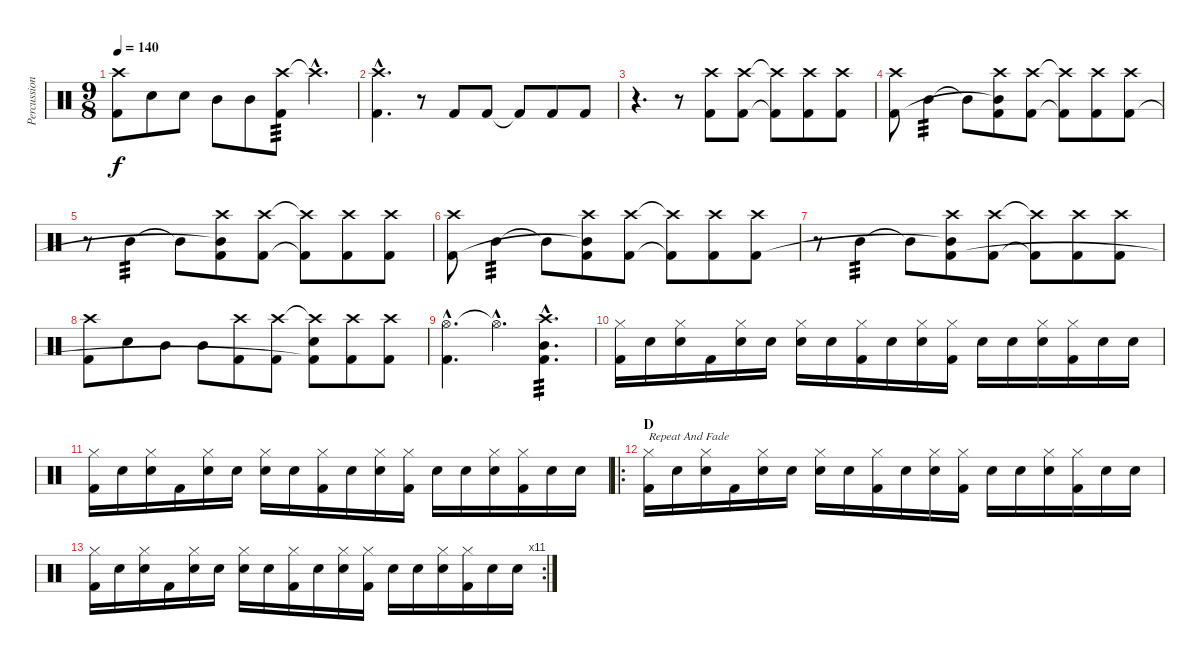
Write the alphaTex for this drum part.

\track ("Percussion" "Percussion") {instrument percussion}
\staff {score}
\articulation defaults
\ts (9 8)
\tempo 140
\clef neutral
\ks c
("Crash high (hit)" "Kick (hit) 2").8{dy f} "Snare (hit) 2".8 "Snare (hit) 2".8 "Mid Tom (hit)".8 "Mid Tom (hit)".8 ("Crash high (hit)" "Kick (hit) 2").8{tp 3} "Crash high (hit)"{hac t}.4{d} |
("Crash high (hit)"{hac} "Kick (hit) 2"{hac}).4{d} r.8 "Kick (hit) 2".8 "Kick (hit) 2".8 "Kick (hit) 2"{t}.8 "Kick (hit) 2".8 "Kick (hit) 2".8 |
r.4{d} r.8 ("Crash high (hit)" "Kick (hit) 2").8 ("Crash high (hit)" "Kick (hit) 2").8 ("Crash high (hit)"{t} "Kick (hit) 2"{t}).8 ("Crash high (hit)" "Kick (hit) 2").8 ("Crash high (hit)" "Kick (hit) 2").8 |
("Crash high (hit)" "Kick (hit) 2").8 "Mid Tom (hit)".4{tp 3} "Mid Tom (hit)"{t}.8 ("Crash high (hit)" "Mid Tom (hit)"{t} "Kick (hit) 2").8 ("Crash high (hit)" "Kick (hit) 2").8 ("Crash high (hit)"{t} "Kick (hit) 2"{t}).8 ("Crash high (hit)" "Kick (hit) 2").8 ("Crash high (hit)" "Kick (hit) 2").8 |
r.8 "Mid Tom (hit)".4{tp 3} "Mid Tom (hit)"{t}.8 ("Crash high (hit)" "Mid Tom (hit)"{t} "Kick (hit) 2").8 ("Crash high (hit)" "Kick (hit) 2").8 ("Crash high (hit)"{t} "Kick (hit) 2"{t}).8 ("Crash high (hit)" "Kick (hit) 2").8 ("Crash high (hit)" "Kick (hit) 2").8 |
("Crash high (hit)" "Kick (hit) 2").8 "Mid Tom (hit)".4{tp 3} "Mid Tom (hit)"{t}.8 ("Crash high (hit)" "Mid Tom (hit)"{t} "Kick (hit) 2").8 ("Crash high (hit)" "Kick (hit) 2").8 ("Crash high (hit)"{t} "Kick (hit) 2"{t}).8 ("Crash high (hit)" "Kick (hit) 2").8 ("Crash high (hit)" "Kick (hit) 2").8 |
r.8 "Mid Tom (hit)".4{tp 3} "Mid Tom (hit)"{t}.8 ("Crash high (hit)" "Mid Tom (hit)"{t} "Kick (hit) 2").8 ("Crash high (hit)" "Kick (hit) 2").8 ("Crash high (hit)"{t} "Kick (hit) 2"{t}).8 ("Crash high (hit)" "Kick (hit) 2").8 ("Crash high (hit)" "Kick (hit) 2").8 |
("Crash high (hit)" "Kick (hit) 2").8 "Snare (hit) 2".8 "Mid Tom (hit)".8 "Mid Tom (hit)".8 ("Crash high (hit)" "Kick (hit) 2").8 ("Crash high (hit)" "Kick (hit) 2").8 ("Crash high (hit)"{t} "Snare (hit) 2" "Kick (hit) 2"{t}).8 ("Crash high (hit)" "Kick (hit) 2").8 ("Crash high (hit)" "Kick (hit) 2").8 |
("Hi-Hat (open)"{hac} "Kick (hit) 2"{hac}).4{d} "Hi-Hat (open)"{hac t}.4{d} ("Crash high (hit)"{hac} "Mid Tom (hit)"{hac} "Kick (hit) 2"{hac}).4{d tp 3} |
("Hi-Hat (closed)" "Kick (hit) 2").16 "Snare (hit) 2".16 ("Hi-Hat (closed)" "Snare (hit) 2").16 "Kick (hit) 2".16 ("Hi-Hat (closed)" "Snare (hit) 2").16 "Snare (hit) 2".16 ("Hi-Hat (closed)" "Snare (hit) 2").16 "Snare (hit) 2".16 ("Hi-Hat (closed)" "Kick (hit) 2").16 "Snare (hit) 2".16 ("Hi-Hat (closed)" "Snare (hit) 2").16 ("Hi-Hat (closed)" "Kick (hit) 2").16 "Snare (hit) 2".16 "Snare (hit) 2".16 ("Hi-Hat (closed)" "Snare (hit) 2").16 ("Hi-Hat (closed)" "Kick (hit) 2").16 "Snare (hit) 2".16 "Snare (hit) 2".16 |
("Hi-Hat (closed)" "Kick (hit) 2").16 "Snare (hit) 2".16 ("Hi-Hat (closed)" "Snare (hit) 2").16 "Kick (hit) 2".16 ("Hi-Hat (closed)" "Snare (hit) 2").16 "Snare (hit) 2".16 ("Hi-Hat (closed)" "Snare (hit) 2").16 "Snare (hit) 2".16 ("Hi-Hat (closed)" "Kick (hit) 2").16 "Snare (hit) 2".16 ("Hi-Hat (closed)" "Snare (hit) 2").16 ("Hi-Hat (closed)" "Kick (hit) 2").16 "Snare (hit) 2".16 "Snare (hit) 2".16 ("Hi-Hat (closed)" "Snare (hit) 2").16 ("Hi-Hat (closed)" "Kick (hit) 2").16 "Snare (hit) 2".16 "Snare (hit) 2".16 |
\ro
\section ("" "D")
("Hi-Hat (closed)" "Kick (hit) 2").16{txt "Repeat And Fade"} "Snare (hit) 2".16 ("Hi-Hat (closed)" "Snare (hit) 2").16 "Kick (hit) 2".16 ("Hi-Hat (closed)" "Snare (hit) 2").16 "Snare (hit) 2".16 ("Hi-Hat (closed)" "Snare (hit) 2").16 "Snare (hit) 2".16 ("Hi-Hat (closed)" "Kick (hit) 2").16 "Snare (hit) 2".16 ("Hi-Hat (closed)" "Snare (hit) 2").16 ("Hi-Hat (closed)" "Kick (hit) 2").16 "Snare (hit) 2".16 "Snare (hit) 2".16 ("Hi-Hat (closed)" "Snare (hit) 2").16 ("Hi-Hat (closed)" "Kick (hit) 2").16 "Snare (hit) 2".16 "Snare (hit) 2".16 |
\rc 11
("Hi-Hat (closed)" "Kick (hit) 2").16 "Snare (hit) 2".16 ("Hi-Hat (closed)" "Snare (hit) 2").16 "Kick (hit) 2".16 ("Hi-Hat (closed)" "Snare (hit) 2").16 "Snare (hit) 2".16 ("Hi-Hat (closed)" "Snare (hit) 2").16 "Snare (hit) 2".16 ("Hi-Hat (closed)" "Kick (hit) 2").16 "Snare (hit) 2".16 ("Hi-Hat (closed)" "Snare (hit) 2").16 ("Hi-Hat (closed)" "Kick (hit) 2").16 "Snare (hit) 2".16 "Snare (hit) 2".16 ("Hi-Hat (closed)" "Snare (hit) 2").16 ("Hi-Hat (closed)" "Kick (hit) 2").16 "Snare (hit) 2".16 "Snare (hit) 2".16
